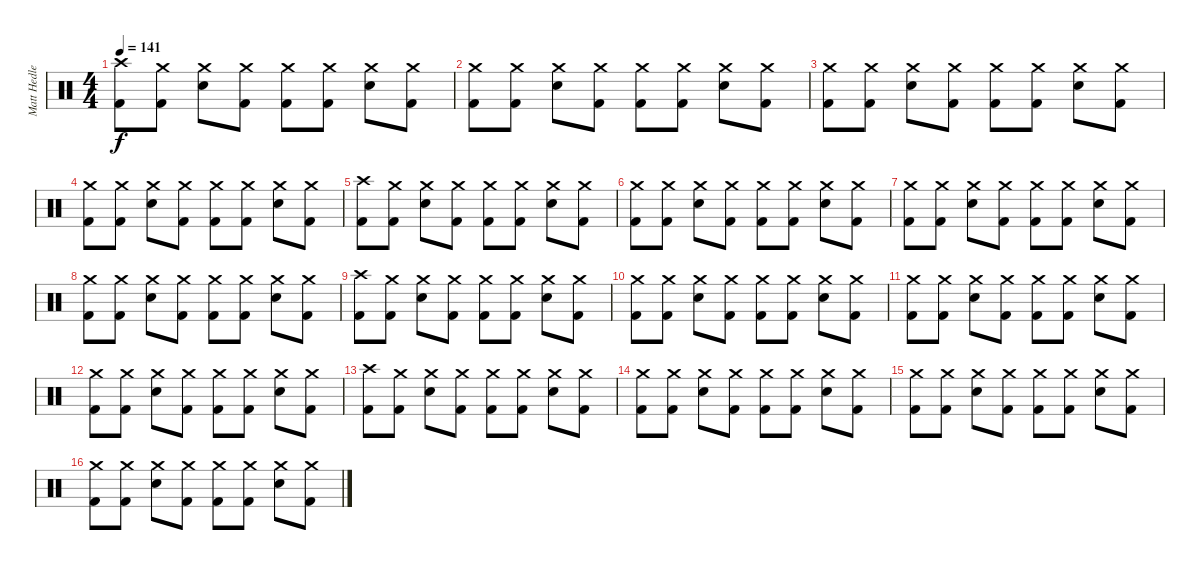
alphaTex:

\track ("Matt Hedlers" "Matt Hedle") {instrument percussion}
\staff {score}
\articulation defaults
\ts (4 4)
\tempo 141
\clef neutral
\ks c
("Crash high (hit)" "Kick (hit) 2").8{dy f} ("Crash medium (hit)" "Kick (hit) 2").8 ("Crash medium (hit)" "Snare (hit) 2").8 ("Crash medium (hit)" "Kick (hit) 2").8 ("Crash medium (hit)" "Kick (hit) 2").8 ("Crash medium (hit)" "Kick (hit) 2").8 ("Crash medium (hit)" "Snare (hit) 2").8 ("Crash medium (hit)" "Kick (hit) 2").8 |
("Crash medium (hit)" "Kick (hit) 2").8 ("Crash medium (hit)" "Kick (hit) 2").8 ("Crash medium (hit)" "Snare (hit) 2").8 ("Crash medium (hit)" "Kick (hit) 2").8 ("Crash medium (hit)" "Kick (hit) 2").8 ("Crash medium (hit)" "Kick (hit) 2").8 ("Crash medium (hit)" "Snare (hit) 2").8 ("Crash medium (hit)" "Kick (hit) 2").8 |
("Crash medium (hit)" "Kick (hit) 2").8 ("Crash medium (hit)" "Kick (hit) 2").8 ("Crash medium (hit)" "Snare (hit) 2").8 ("Crash medium (hit)" "Kick (hit) 2").8 ("Crash medium (hit)" "Kick (hit) 2").8 ("Crash medium (hit)" "Kick (hit) 2").8 ("Crash medium (hit)" "Snare (hit) 2").8 ("Crash medium (hit)" "Kick (hit) 2").8 |
("Crash medium (hit)" "Kick (hit) 2").8 ("Crash medium (hit)" "Kick (hit) 2").8 ("Crash medium (hit)" "Snare (hit) 2").8 ("Crash medium (hit)" "Kick (hit) 2").8 ("Crash medium (hit)" "Kick (hit) 2").8 ("Crash medium (hit)" "Kick (hit) 2").8 ("Crash medium (hit)" "Snare (hit) 2").8 ("Crash medium (hit)" "Kick (hit) 2").8 |
("Crash high (hit)" "Kick (hit) 2").8 ("Crash medium (hit)" "Kick (hit) 2").8 ("Crash medium (hit)" "Snare (hit) 2").8 ("Crash medium (hit)" "Kick (hit) 2").8 ("Crash medium (hit)" "Kick (hit) 2").8 ("Crash medium (hit)" "Kick (hit) 2").8 ("Crash medium (hit)" "Snare (hit) 2").8 ("Crash medium (hit)" "Kick (hit) 2").8 |
("Crash medium (hit)" "Kick (hit) 2").8 ("Crash medium (hit)" "Kick (hit) 2").8 ("Crash medium (hit)" "Snare (hit) 2").8 ("Crash medium (hit)" "Kick (hit) 2").8 ("Crash medium (hit)" "Kick (hit) 2").8 ("Crash medium (hit)" "Kick (hit) 2").8 ("Crash medium (hit)" "Snare (hit) 2").8 ("Crash medium (hit)" "Kick (hit) 2").8 |
("Crash medium (hit)" "Kick (hit) 2").8 ("Crash medium (hit)" "Kick (hit) 2").8 ("Crash medium (hit)" "Snare (hit) 2").8 ("Crash medium (hit)" "Kick (hit) 2").8 ("Crash medium (hit)" "Kick (hit) 2").8 ("Crash medium (hit)" "Kick (hit) 2").8 ("Crash medium (hit)" "Snare (hit) 2").8 ("Crash medium (hit)" "Kick (hit) 2").8 |
("Crash medium (hit)" "Kick (hit) 2").8 ("Crash medium (hit)" "Kick (hit) 2").8 ("Crash medium (hit)" "Snare (hit) 2").8 ("Crash medium (hit)" "Kick (hit) 2").8 ("Crash medium (hit)" "Kick (hit) 2").8 ("Crash medium (hit)" "Kick (hit) 2").8 ("Crash medium (hit)" "Snare (hit) 2").8 ("Crash medium (hit)" "Kick (hit) 2").8 |
("Crash high (hit)" "Kick (hit) 2").8 ("Crash medium (hit)" "Kick (hit) 2").8 ("Crash medium (hit)" "Snare (hit) 2").8 ("Crash medium (hit)" "Kick (hit) 2").8 ("Crash medium (hit)" "Kick (hit) 2").8 ("Crash medium (hit)" "Kick (hit) 2").8 ("Crash medium (hit)" "Snare (hit) 2").8 ("Crash medium (hit)" "Kick (hit) 2").8 |
("Crash medium (hit)" "Kick (hit) 2").8 ("Crash medium (hit)" "Kick (hit) 2").8 ("Crash medium (hit)" "Snare (hit) 2").8 ("Crash medium (hit)" "Kick (hit) 2").8 ("Crash medium (hit)" "Kick (hit) 2").8 ("Crash medium (hit)" "Kick (hit) 2").8 ("Crash medium (hit)" "Snare (hit) 2").8 ("Crash medium (hit)" "Kick (hit) 2").8 |
("Crash medium (hit)" "Kick (hit) 2").8 ("Crash medium (hit)" "Kick (hit) 2").8 ("Crash medium (hit)" "Snare (hit) 2").8 ("Crash medium (hit)" "Kick (hit) 2").8 ("Crash medium (hit)" "Kick (hit) 2").8 ("Crash medium (hit)" "Kick (hit) 2").8 ("Crash medium (hit)" "Snare (hit) 2").8 ("Crash medium (hit)" "Kick (hit) 2").8 |
("Crash medium (hit)" "Kick (hit) 2").8 ("Crash medium (hit)" "Kick (hit) 2").8 ("Crash medium (hit)" "Snare (hit) 2").8 ("Crash medium (hit)" "Kick (hit) 2").8 ("Crash medium (hit)" "Kick (hit) 2").8 ("Crash medium (hit)" "Kick (hit) 2").8 ("Crash medium (hit)" "Snare (hit) 2").8 ("Crash medium (hit)" "Kick (hit) 2").8 |
("Crash high (hit)" "Kick (hit) 2").8 ("Crash medium (hit)" "Kick (hit) 2").8 ("Crash medium (hit)" "Snare (hit) 2").8 ("Crash medium (hit)" "Kick (hit) 2").8 ("Crash medium (hit)" "Kick (hit) 2").8 ("Crash medium (hit)" "Kick (hit) 2").8 ("Crash medium (hit)" "Snare (hit) 2").8 ("Crash medium (hit)" "Kick (hit) 2").8 |
("Crash medium (hit)" "Kick (hit) 2").8 ("Crash medium (hit)" "Kick (hit) 2").8 ("Crash medium (hit)" "Snare (hit) 2").8 ("Crash medium (hit)" "Kick (hit) 2").8 ("Crash medium (hit)" "Kick (hit) 2").8 ("Crash medium (hit)" "Kick (hit) 2").8 ("Crash medium (hit)" "Snare (hit) 2").8 ("Crash medium (hit)" "Kick (hit) 2").8 |
("Crash medium (hit)" "Kick (hit) 2").8 ("Crash medium (hit)" "Kick (hit) 2").8 ("Crash medium (hit)" "Snare (hit) 2").8 ("Crash medium (hit)" "Kick (hit) 2").8 ("Crash medium (hit)" "Kick (hit) 2").8 ("Crash medium (hit)" "Kick (hit) 2").8 ("Crash medium (hit)" "Snare (hit) 2").8 ("Crash medium (hit)" "Kick (hit) 2").8 |
("Crash medium (hit)" "Kick (hit) 2").8 ("Crash medium (hit)" "Kick (hit) 2").8 ("Crash medium (hit)" "Snare (hit) 2").8 ("Crash medium (hit)" "Kick (hit) 2").8 ("Crash medium (hit)" "Kick (hit) 2").8 ("Crash medium (hit)" "Kick (hit) 2").8 ("Crash medium (hit)" "Snare (hit) 2").8 ("Crash medium (hit)" "Kick (hit) 2").8
